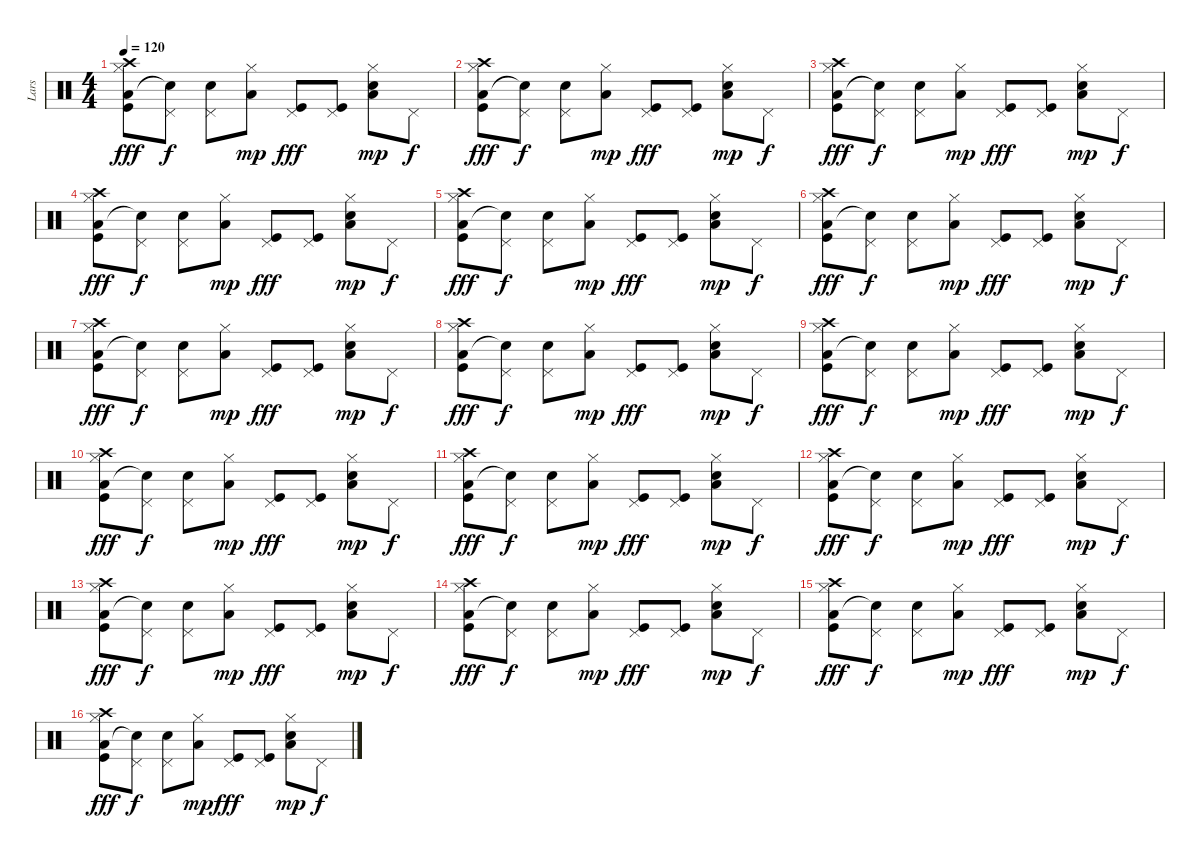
\track ("Lars" "Lars") {instrument percussion}
\staff {score}
\articulation defaults
\ts (4 4)
\tempo 120
\clef neutral
\ks c
("Hi-Hat (closed)" "Low Floor Tom (hit)" "Crash high (hit)" "Kick (hit)").8{dy fff} ("Pedal Hi-Hat (hit)" "Snare (hit)"{t}).8{dy f} ("Pedal Hi-Hat (hit)" "Electric Snare (hit)").8 ("Hi-Hat (closed)" "Low Floor Tom (hit)").8{dy mp} ("Pedal Hi-Hat (hit)" "Kick (hit)").8{dy fff} ("Pedal Hi-Hat (hit)" "Kick (hit)").8 ("Hi-Hat (closed)" "Low Floor Tom (hit)" "Electric Snare (hit)").8{dy mp} "Pedal Hi-Hat (hit)".8{dy f} |
("Hi-Hat (closed)" "Low Floor Tom (hit)" "Crash high (hit)" "Kick (hit)").8{dy fff} ("Pedal Hi-Hat (hit)" "Snare (hit)"{t}).8{dy f} ("Pedal Hi-Hat (hit)" "Electric Snare (hit)").8 ("Hi-Hat (closed)" "Low Floor Tom (hit)").8{dy mp} ("Pedal Hi-Hat (hit)" "Kick (hit)").8{dy fff} ("Pedal Hi-Hat (hit)" "Kick (hit)").8 ("Hi-Hat (closed)" "Low Floor Tom (hit)" "Electric Snare (hit)").8{dy mp} "Pedal Hi-Hat (hit)".8{dy f} |
("Hi-Hat (closed)" "Low Floor Tom (hit)" "Crash high (hit)" "Kick (hit)").8{dy fff} ("Pedal Hi-Hat (hit)" "Snare (hit)"{t}).8{dy f} ("Pedal Hi-Hat (hit)" "Electric Snare (hit)").8 ("Hi-Hat (closed)" "Low Floor Tom (hit)").8{dy mp} ("Pedal Hi-Hat (hit)" "Kick (hit)").8{dy fff} ("Pedal Hi-Hat (hit)" "Kick (hit)").8 ("Hi-Hat (closed)" "Low Floor Tom (hit)" "Electric Snare (hit)").8{dy mp} "Pedal Hi-Hat (hit)".8{dy f} |
("Hi-Hat (closed)" "Low Floor Tom (hit)" "Crash high (hit)" "Kick (hit)").8{dy fff} ("Pedal Hi-Hat (hit)" "Snare (hit)"{t}).8{dy f} ("Pedal Hi-Hat (hit)" "Electric Snare (hit)").8 ("Hi-Hat (closed)" "Low Floor Tom (hit)").8{dy mp} ("Pedal Hi-Hat (hit)" "Kick (hit)").8{dy fff} ("Pedal Hi-Hat (hit)" "Kick (hit)").8 ("Hi-Hat (closed)" "Low Floor Tom (hit)" "Electric Snare (hit)").8{dy mp} "Pedal Hi-Hat (hit)".8{dy f} |
("Hi-Hat (closed)" "Low Floor Tom (hit)" "Crash high (hit)" "Kick (hit)").8{dy fff} ("Pedal Hi-Hat (hit)" "Snare (hit)"{t}).8{dy f} ("Pedal Hi-Hat (hit)" "Electric Snare (hit)").8 ("Hi-Hat (closed)" "Low Floor Tom (hit)").8{dy mp} ("Pedal Hi-Hat (hit)" "Kick (hit)").8{dy fff} ("Pedal Hi-Hat (hit)" "Kick (hit)").8 ("Hi-Hat (closed)" "Low Floor Tom (hit)" "Electric Snare (hit)").8{dy mp} "Pedal Hi-Hat (hit)".8{dy f} |
("Hi-Hat (closed)" "Low Floor Tom (hit)" "Crash high (hit)" "Kick (hit)").8{dy fff} ("Pedal Hi-Hat (hit)" "Snare (hit)"{t}).8{dy f} ("Pedal Hi-Hat (hit)" "Electric Snare (hit)").8 ("Hi-Hat (closed)" "Low Floor Tom (hit)").8{dy mp} ("Pedal Hi-Hat (hit)" "Kick (hit)").8{dy fff} ("Pedal Hi-Hat (hit)" "Kick (hit)").8 ("Hi-Hat (closed)" "Low Floor Tom (hit)" "Electric Snare (hit)").8{dy mp} "Pedal Hi-Hat (hit)".8{dy f} |
("Hi-Hat (closed)" "Low Floor Tom (hit)" "Crash high (hit)" "Kick (hit)").8{dy fff} ("Pedal Hi-Hat (hit)" "Snare (hit)"{t}).8{dy f} ("Pedal Hi-Hat (hit)" "Electric Snare (hit)").8 ("Hi-Hat (closed)" "Low Floor Tom (hit)").8{dy mp} ("Pedal Hi-Hat (hit)" "Kick (hit)").8{dy fff} ("Pedal Hi-Hat (hit)" "Kick (hit)").8 ("Hi-Hat (closed)" "Low Floor Tom (hit)" "Electric Snare (hit)").8{dy mp} "Pedal Hi-Hat (hit)".8{dy f} |
("Hi-Hat (closed)" "Low Floor Tom (hit)" "Crash high (hit)" "Kick (hit)").8{dy fff} ("Pedal Hi-Hat (hit)" "Snare (hit)"{t}).8{dy f} ("Pedal Hi-Hat (hit)" "Electric Snare (hit)").8 ("Hi-Hat (closed)" "Low Floor Tom (hit)").8{dy mp} ("Pedal Hi-Hat (hit)" "Kick (hit)").8{dy fff} ("Pedal Hi-Hat (hit)" "Kick (hit)").8 ("Hi-Hat (closed)" "Low Floor Tom (hit)" "Electric Snare (hit)").8{dy mp} "Pedal Hi-Hat (hit)".8{dy f} |
("Hi-Hat (closed)" "Low Floor Tom (hit)" "Crash high (hit)" "Kick (hit)").8{dy fff} ("Pedal Hi-Hat (hit)" "Snare (hit)"{t}).8{dy f} ("Pedal Hi-Hat (hit)" "Electric Snare (hit)").8 ("Hi-Hat (closed)" "Low Floor Tom (hit)").8{dy mp} ("Pedal Hi-Hat (hit)" "Kick (hit)").8{dy fff} ("Pedal Hi-Hat (hit)" "Kick (hit)").8 ("Hi-Hat (closed)" "Low Floor Tom (hit)" "Electric Snare (hit)").8{dy mp} "Pedal Hi-Hat (hit)".8{dy f} |
("Hi-Hat (closed)" "Low Floor Tom (hit)" "Crash high (hit)" "Kick (hit)").8{dy fff} ("Pedal Hi-Hat (hit)" "Snare (hit)"{t}).8{dy f} ("Pedal Hi-Hat (hit)" "Electric Snare (hit)").8 ("Hi-Hat (closed)" "Low Floor Tom (hit)").8{dy mp} ("Pedal Hi-Hat (hit)" "Kick (hit)").8{dy fff} ("Pedal Hi-Hat (hit)" "Kick (hit)").8 ("Hi-Hat (closed)" "Low Floor Tom (hit)" "Electric Snare (hit)").8{dy mp} "Pedal Hi-Hat (hit)".8{dy f} |
("Hi-Hat (closed)" "Low Floor Tom (hit)" "Crash high (hit)" "Kick (hit)").8{dy fff} ("Pedal Hi-Hat (hit)" "Snare (hit)"{t}).8{dy f} ("Pedal Hi-Hat (hit)" "Electric Snare (hit)").8 ("Hi-Hat (closed)" "Low Floor Tom (hit)").8{dy mp} ("Pedal Hi-Hat (hit)" "Kick (hit)").8{dy fff} ("Pedal Hi-Hat (hit)" "Kick (hit)").8 ("Hi-Hat (closed)" "Low Floor Tom (hit)" "Electric Snare (hit)").8{dy mp} "Pedal Hi-Hat (hit)".8{dy f} |
("Hi-Hat (closed)" "Low Floor Tom (hit)" "Crash high (hit)" "Kick (hit)").8{dy fff} ("Pedal Hi-Hat (hit)" "Snare (hit)"{t}).8{dy f} ("Pedal Hi-Hat (hit)" "Electric Snare (hit)").8 ("Hi-Hat (closed)" "Low Floor Tom (hit)").8{dy mp} ("Pedal Hi-Hat (hit)" "Kick (hit)").8{dy fff} ("Pedal Hi-Hat (hit)" "Kick (hit)").8 ("Hi-Hat (closed)" "Low Floor Tom (hit)" "Electric Snare (hit)").8{dy mp} "Pedal Hi-Hat (hit)".8{dy f} |
("Hi-Hat (closed)" "Low Floor Tom (hit)" "Crash high (hit)" "Kick (hit)").8{dy fff} ("Pedal Hi-Hat (hit)" "Snare (hit)"{t}).8{dy f} ("Pedal Hi-Hat (hit)" "Electric Snare (hit)").8 ("Hi-Hat (closed)" "Low Floor Tom (hit)").8{dy mp} ("Pedal Hi-Hat (hit)" "Kick (hit)").8{dy fff} ("Pedal Hi-Hat (hit)" "Kick (hit)").8 ("Hi-Hat (closed)" "Low Floor Tom (hit)" "Electric Snare (hit)").8{dy mp} "Pedal Hi-Hat (hit)".8{dy f} |
("Hi-Hat (closed)" "Low Floor Tom (hit)" "Crash high (hit)" "Kick (hit)").8{dy fff} ("Pedal Hi-Hat (hit)" "Snare (hit)"{t}).8{dy f} ("Pedal Hi-Hat (hit)" "Electric Snare (hit)").8 ("Hi-Hat (closed)" "Low Floor Tom (hit)").8{dy mp} ("Pedal Hi-Hat (hit)" "Kick (hit)").8{dy fff} ("Pedal Hi-Hat (hit)" "Kick (hit)").8 ("Hi-Hat (closed)" "Low Floor Tom (hit)" "Electric Snare (hit)").8{dy mp} "Pedal Hi-Hat (hit)".8{dy f} |
("Hi-Hat (closed)" "Low Floor Tom (hit)" "Crash high (hit)" "Kick (hit)").8{dy fff} ("Pedal Hi-Hat (hit)" "Snare (hit)"{t}).8{dy f} ("Pedal Hi-Hat (hit)" "Electric Snare (hit)").8 ("Hi-Hat (closed)" "Low Floor Tom (hit)").8{dy mp} ("Pedal Hi-Hat (hit)" "Kick (hit)").8{dy fff} ("Pedal Hi-Hat (hit)" "Kick (hit)").8 ("Hi-Hat (closed)" "Low Floor Tom (hit)" "Electric Snare (hit)").8{dy mp} "Pedal Hi-Hat (hit)".8{dy f} |
("Hi-Hat (closed)" "Low Floor Tom (hit)" "Crash high (hit)" "Kick (hit)").8{dy fff} ("Pedal Hi-Hat (hit)" "Snare (hit)"{t}).8{dy f} ("Pedal Hi-Hat (hit)" "Electric Snare (hit)").8 ("Hi-Hat (closed)" "Low Floor Tom (hit)").8{dy mp} ("Pedal Hi-Hat (hit)" "Kick (hit)").8{dy fff} ("Pedal Hi-Hat (hit)" "Kick (hit)").8 ("Hi-Hat (closed)" "Low Floor Tom (hit)" "Electric Snare (hit)").8{dy mp} "Pedal Hi-Hat (hit)".8{dy f}
